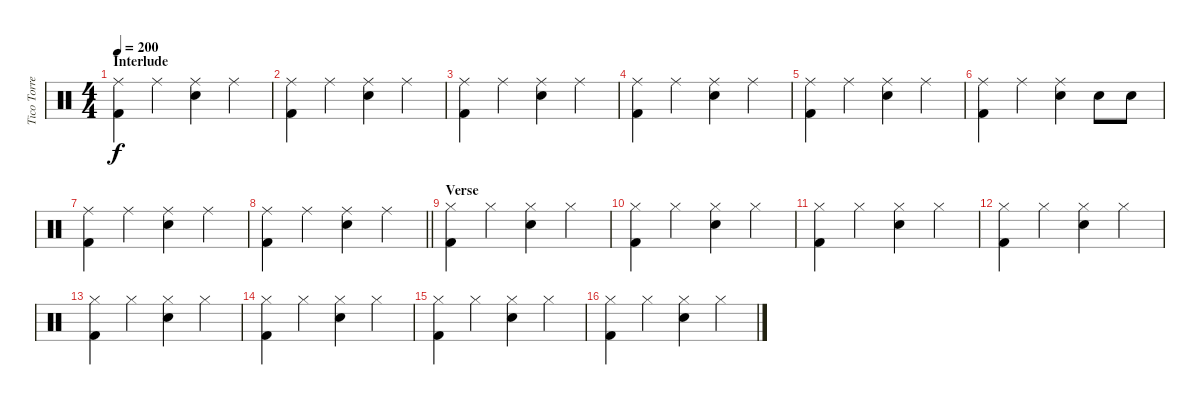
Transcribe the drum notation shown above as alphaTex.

\track ("Tico Torres" "Tico Torre") {instrument percussion}
\staff {score}
\articulation defaults
\ts (4 4)
\section ("" "Interlude")
\tempo 200
\clef neutral
\ks c
("Ride (middle)" "Kick (hit) 2").4{dy f} "Ride (middle)".4 ("Snare (hit) 2" "Ride (middle)").4 "Ride (middle)".4 |
("Ride (middle)" "Kick (hit) 2").4 "Ride (middle)".4 ("Snare (hit) 2" "Ride (middle)").4 "Ride (middle)".4 |
("Ride (middle)" "Kick (hit) 2").4 "Ride (middle)".4 ("Snare (hit) 2" "Ride (middle)").4 "Ride (middle)".4 |
("Ride (middle)" "Kick (hit) 2").4 "Ride (middle)".4 ("Snare (hit) 2" "Ride (middle)").4 "Ride (middle)".4 |
("Ride (middle)" "Kick (hit) 2").4 "Ride (middle)".4 ("Snare (hit) 2" "Ride (middle)").4 "Ride (middle)".4 |
("Ride (middle)" "Kick (hit) 2").4 "Ride (middle)".4 ("Snare (hit) 2" "Ride (middle)").4 "Snare (hit) 2".8 "Snare (hit) 2".8 |
("Ride (middle)" "Kick (hit) 2").4 "Ride (middle)".4 ("Snare (hit) 2" "Ride (middle)").4 "Ride (middle)".4 |
\barLineRight lightlight
("Ride (middle)" "Kick (hit) 2").4 "Ride (middle)".4 ("Snare (hit) 2" "Ride (middle)").4 "Ride (middle)".4 |
\section ("" "Verse")
("Hi-Hat (closed)" "Kick (hit) 2").4 "Hi-Hat (closed)".4 ("Snare (hit) 2" "Hi-Hat (closed)").4 "Hi-Hat (closed)".4 |
("Hi-Hat (closed)" "Kick (hit) 2").4 "Hi-Hat (closed)".4 ("Snare (hit) 2" "Hi-Hat (closed)").4 "Hi-Hat (closed)".4 |
("Hi-Hat (closed)" "Kick (hit) 2").4 "Hi-Hat (closed)".4 ("Snare (hit) 2" "Hi-Hat (closed)").4 "Hi-Hat (closed)".4 |
("Hi-Hat (closed)" "Kick (hit) 2").4 "Hi-Hat (closed)".4 ("Snare (hit) 2" "Hi-Hat (closed)").4 "Hi-Hat (closed)".4 |
("Hi-Hat (closed)" "Kick (hit) 2").4 "Hi-Hat (closed)".4 ("Snare (hit) 2" "Hi-Hat (closed)").4 "Hi-Hat (closed)".4 |
("Hi-Hat (closed)" "Kick (hit) 2").4 "Hi-Hat (closed)".4 ("Snare (hit) 2" "Hi-Hat (closed)").4 "Hi-Hat (closed)".4 |
("Hi-Hat (closed)" "Kick (hit) 2").4 "Hi-Hat (closed)".4 ("Snare (hit) 2" "Hi-Hat (closed)").4 "Hi-Hat (closed)".4 |
("Hi-Hat (closed)" "Kick (hit) 2").4 "Hi-Hat (closed)".4 ("Snare (hit) 2" "Hi-Hat (closed)").4 "Hi-Hat (closed)".4
